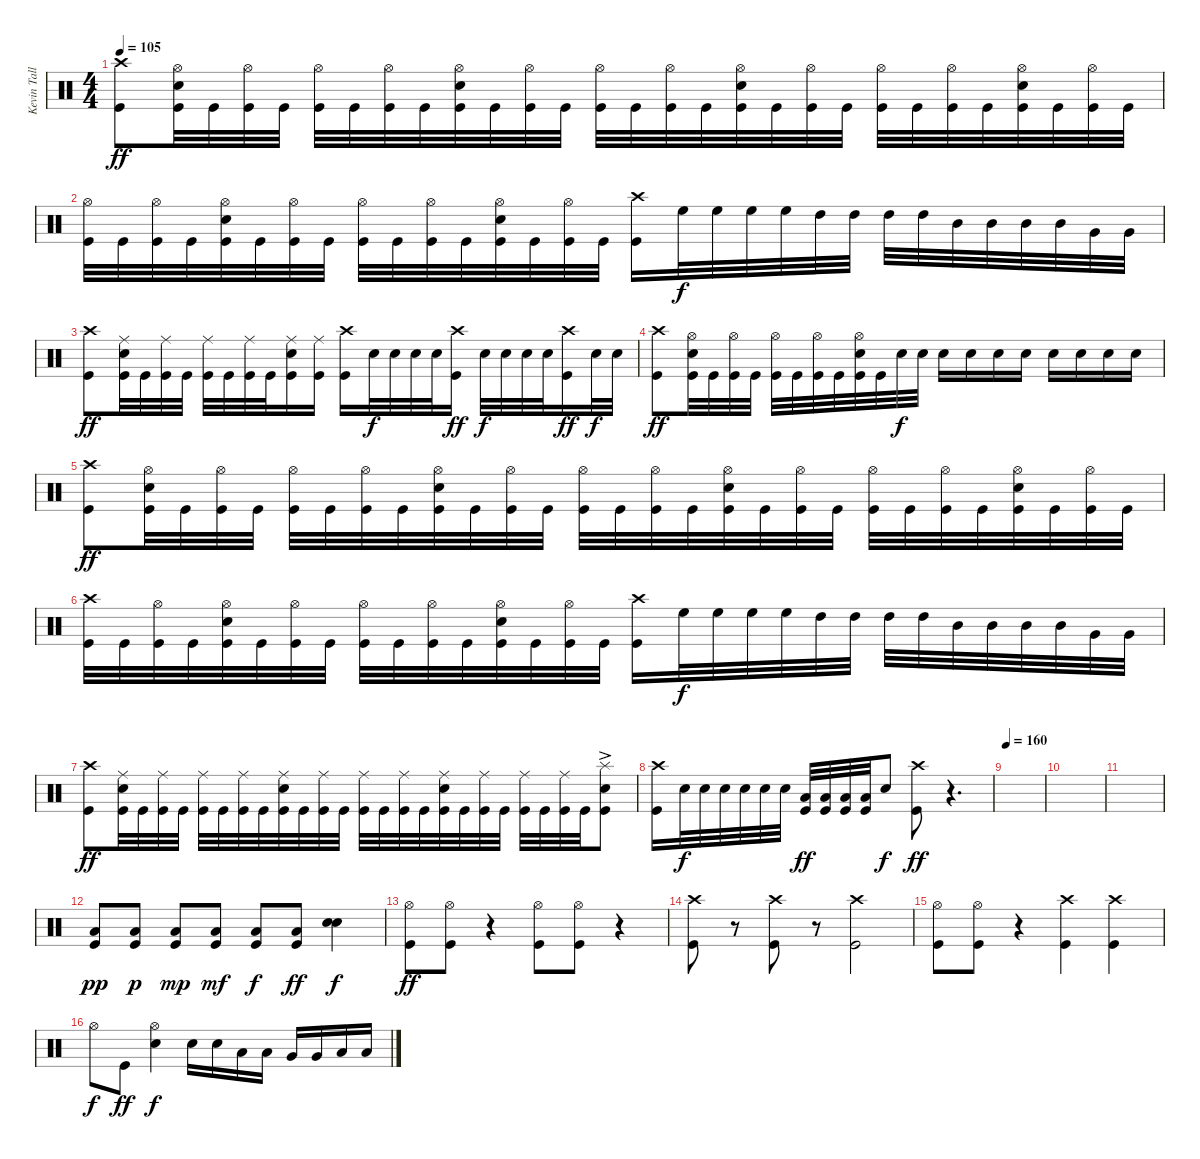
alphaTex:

\track ("Kevin Talley" "Kevin Tall") {instrument percussion}
\staff {score}
\articulation defaults
\ts (4 4)
\tempo 105
\clef neutral
\ks c
("Crash high (hit)" "Kick (hit)").8{dy ff} ("Hi-Hat (open)" "Electric Snare (hit)" "Kick (hit)").32 "Kick (hit)".32 ("Hi-Hat (open)" "Kick (hit)").32 "Kick (hit)".32 ("Hi-Hat (open)" "Kick (hit)").32 "Kick (hit)".32 ("Hi-Hat (open)" "Kick (hit)").32 "Kick (hit)".32 ("Hi-Hat (open)" "Electric Snare (hit)" "Kick (hit)").32 "Kick (hit)".32 ("Hi-Hat (open)" "Kick (hit)").32 "Kick (hit)".32 ("Hi-Hat (open)" "Kick (hit)").32 "Kick (hit)".32 ("Hi-Hat (open)" "Kick (hit)").32 "Kick (hit)".32 ("Hi-Hat (open)" "Electric Snare (hit)" "Kick (hit)").32 "Kick (hit)".32 ("Hi-Hat (open)" "Kick (hit)").32 "Kick (hit)".32 ("Hi-Hat (open)" "Kick (hit)").32 "Kick (hit)".32 ("Hi-Hat (open)" "Kick (hit)").32 "Kick (hit)".32 ("Hi-Hat (open)" "Electric Snare (hit)" "Kick (hit)").32 "Kick (hit)".32 ("Hi-Hat (open)" "Kick (hit)").32 "Kick (hit)".32 |
("Hi-Hat (open)" "Kick (hit)").32 "Kick (hit)".32 ("Hi-Hat (open)" "Kick (hit)").32 "Kick (hit)".32 ("Hi-Hat (open)" "Electric Snare (hit)" "Kick (hit)").32 "Kick (hit)".32 ("Hi-Hat (open)" "Kick (hit)").32 "Kick (hit)".32 ("Hi-Hat (open)" "Kick (hit)").32 "Kick (hit)".32 ("Hi-Hat (open)" "Kick (hit)").32 "Kick (hit)".32 ("Hi-Hat (open)" "Electric Snare (hit)" "Kick (hit)").32 "Kick (hit)".32 ("Hi-Hat (open)" "Kick (hit)").32 "Kick (hit)".32 ("Crash high (hit)" "Kick (hit)").16 "High Floor Tom (hit)".32{dy f} "High Floor Tom (hit)".32 "High Floor Tom (hit)".32 "High Floor Tom (hit)".32 "High Tom (hit)".32 "High Tom (hit)".32 "High Tom (hit)".32 "High Tom (hit)".32 "Mid Tom (hit)".32 "Mid Tom (hit)".32 "Mid Tom (hit)".32 "Mid Tom (hit)".32 "Very Low Tom (hit)".32 "Very Low Tom (hit)".32 |
("Crash high (hit)" "Kick (hit)").8{dy ff} ("Ride (middle)" "Electric Snare (hit)" "Kick (hit)").32 "Kick (hit)".32 ("Ride (middle)" "Kick (hit)").32 "Kick (hit)".32 ("Ride (middle)" "Kick (hit)").32 "Kick (hit)".32 ("Ride (middle)" "Kick (hit)").32 "Kick (hit)".32 ("Ride (middle)" "Electric Snare (hit)" "Kick (hit)").16 ("Ride (middle)" "Kick (hit)").16 ("Crash high (hit)" "Kick (hit)").16 "Electric Snare (hit)".32{dy f} "Electric Snare (hit)".32 "Electric Snare (hit)".32 "Electric Snare (hit)".32 ("Crash high (hit)" "Kick (hit)").16{dy ff} "Electric Snare (hit)".32{dy f} "Electric Snare (hit)".32 "Electric Snare (hit)".32 "Electric Snare (hit)".32 ("Crash high (hit)" "Kick (hit)").16{dy ff} "Electric Snare (hit)".32{dy f} "Electric Snare (hit)".32 |
("Crash high (hit)" "Kick (hit)").8{dy ff} ("Hi-Hat (open)" "Electric Snare (hit)" "Kick (hit)").32 "Kick (hit)".32 ("Hi-Hat (open)" "Kick (hit)").32 "Kick (hit)".32 ("Hi-Hat (open)" "Kick (hit)").32 "Kick (hit)".32 ("Hi-Hat (open)" "Kick (hit)").32 "Kick (hit)".32 ("Hi-Hat (open)" "Electric Snare (hit)" "Kick (hit)").32 "Kick (hit)".32 "Electric Snare (hit)".32{dy f} "Electric Snare (hit)".32 "Electric Snare (hit)".16 "Electric Snare (hit)".16 "Electric Snare (hit)".16 "Electric Snare (hit)".16 "Electric Snare (hit)".16 "Electric Snare (hit)".16 "Electric Snare (hit)".16 "Electric Snare (hit)".16 |
("Crash high (hit)" "Kick (hit)").8{dy ff} ("Hi-Hat (open)" "Electric Snare (hit)" "Kick (hit)").32 "Kick (hit)".32 ("Hi-Hat (open)" "Kick (hit)").32 "Kick (hit)".32 ("Hi-Hat (open)" "Kick (hit)").32 "Kick (hit)".32 ("Hi-Hat (open)" "Kick (hit)").32 "Kick (hit)".32 ("Hi-Hat (open)" "Electric Snare (hit)" "Kick (hit)").32 "Kick (hit)".32 ("Hi-Hat (open)" "Kick (hit)").32 "Kick (hit)".32 ("Hi-Hat (open)" "Kick (hit)").32 "Kick (hit)".32 ("Hi-Hat (open)" "Kick (hit)").32 "Kick (hit)".32 ("Hi-Hat (open)" "Electric Snare (hit)" "Kick (hit)").32 "Kick (hit)".32 ("Hi-Hat (open)" "Kick (hit)").32 "Kick (hit)".32 ("Hi-Hat (open)" "Kick (hit)").32 "Kick (hit)".32 ("Hi-Hat (open)" "Kick (hit)").32 "Kick (hit)".32 ("Hi-Hat (open)" "Electric Snare (hit)" "Kick (hit)").32 "Kick (hit)".32 ("Hi-Hat (open)" "Kick (hit)").32 "Kick (hit)".32 |
("Crash high (hit)" "Kick (hit)").32 "Kick (hit)".32 ("Hi-Hat (open)" "Kick (hit)").32 "Kick (hit)".32 ("Hi-Hat (open)" "Electric Snare (hit)" "Kick (hit)").32 "Kick (hit)".32 ("Hi-Hat (open)" "Kick (hit)").32 "Kick (hit)".32 ("Hi-Hat (open)" "Kick (hit)").32 "Kick (hit)".32 ("Hi-Hat (open)" "Kick (hit)").32 "Kick (hit)".32 ("Hi-Hat (open)" "Electric Snare (hit)" "Kick (hit)").32 "Kick (hit)".32 ("Hi-Hat (open)" "Kick (hit)").32 "Kick (hit)".32 ("Crash high (hit)" "Kick (hit)").16 "High Floor Tom (hit)".32{dy f} "High Floor Tom (hit)".32 "High Floor Tom (hit)".32 "High Floor Tom (hit)".32 "High Tom (hit)".32 "High Tom (hit)".32 "High Tom (hit)".32 "High Tom (hit)".32 "Mid Tom (hit)".32 "Mid Tom (hit)".32 "Mid Tom (hit)".32 "Mid Tom (hit)".32 "Very Low Tom (hit)".32 "Very Low Tom (hit)".32 |
("Crash high (hit)" "Kick (hit)").8{dy ff} ("Ride (middle)" "Electric Snare (hit)" "Kick (hit)").32 "Kick (hit)".32 ("Ride (middle)" "Kick (hit)").32 "Kick (hit)".32 ("Ride (middle)" "Kick (hit)").32 "Kick (hit)".32 ("Ride (middle)" "Kick (hit)").32 "Kick (hit)".32 ("Ride (middle)" "Electric Snare (hit)" "Kick (hit)").32 "Kick (hit)".32 ("Ride (middle)" "Kick (hit)").32 "Kick (hit)".32 ("Ride (middle)" "Kick (hit)").32 "Kick (hit)".32 ("Ride (middle)" "Kick (hit)").32 "Kick (hit)".32 ("Ride (middle)" "Electric Snare (hit)" "Kick (hit)").32 "Kick (hit)".32 ("Ride (middle)" "Kick (hit)").32 "Kick (hit)".32 ("Ride (middle)" "Kick (hit)").32 "Kick (hit)".32 ("Ride (middle)" "Kick (hit)").32 "Kick (hit)".32 ("Splash (hit)" "Electric Snare (hit)"{ac} "Kick (hit)").8 |
("Crash high (hit)" "Kick (hit)").16 "Electric Snare (hit)".32{dy f} "Electric Snare (hit)".32 "Electric Snare (hit)".32 "Electric Snare (hit)".32 "Electric Snare (hit)".32 "Electric Snare (hit)".32 ("Low Tom (hit)" "Kick (hit)").32{dy ff} ("Low Tom (hit)" "Kick (hit)").32 ("Low Tom (hit)" "Kick (hit)").32 ("Low Tom (hit)" "Kick (hit)").32 "Electric Snare (hit)".8{dy f} ("Crash high (hit)" "Kick (hit)").8{dy ff} r.4{d volume 0} |
\tempo 160
|
|
|
("Low Floor Tom (hit)" "Kick (hit)").8{dy pp volume 16} ("Low Floor Tom (hit)" "Kick (hit)").8{dy p} ("Low Floor Tom (hit)" "Kick (hit)").8{dy mp} ("Low Floor Tom (hit)" "Kick (hit)").8{dy mf} ("Low Floor Tom (hit)" "Kick (hit)").8{dy f} ("Low Floor Tom (hit)" "Kick (hit)").8{dy ff} ("Electric Snare (hit)" "Electric Snare (hit)").4{dy f} |
("Hi-Hat (open)" "Kick (hit)").8{dy ff} ("Hi-Hat (open)" "Kick (hit)").8 r.4 ("Hi-Hat (open)" "Kick (hit)").8 ("Hi-Hat (open)" "Kick (hit)").8 r.4 |
("Crash high (hit)" "Kick (hit)").8 r.8{volume 0} ("Crash high (hit)" "Kick (hit)").8{volume 16} r.8{volume 0} ("Crash high (hit)" "Kick (hit)").2{volume 16} |
("Hi-Hat (open)" "Kick (hit)").8 ("Hi-Hat (open)" "Kick (hit)").8 r.4 ("Crash high (hit)" "Kick (hit)").4 ("Crash high (hit)" "Kick (hit)").4 |
"Hi-Hat (open)".8{dy f} "Kick (hit)".8{dy ff} ("Hi-Hat (open)" "Electric Snare (hit)").4{dy f} "Electric Snare (hit)".16 "Electric Snare (hit)".16 "Low Tom (hit)".16 "Low Tom (hit)".16 "Very Low Tom (hit)".16 "Very Low Tom (hit)".16 "Low Floor Tom (hit)".16 "Low Floor Tom (hit)".16
